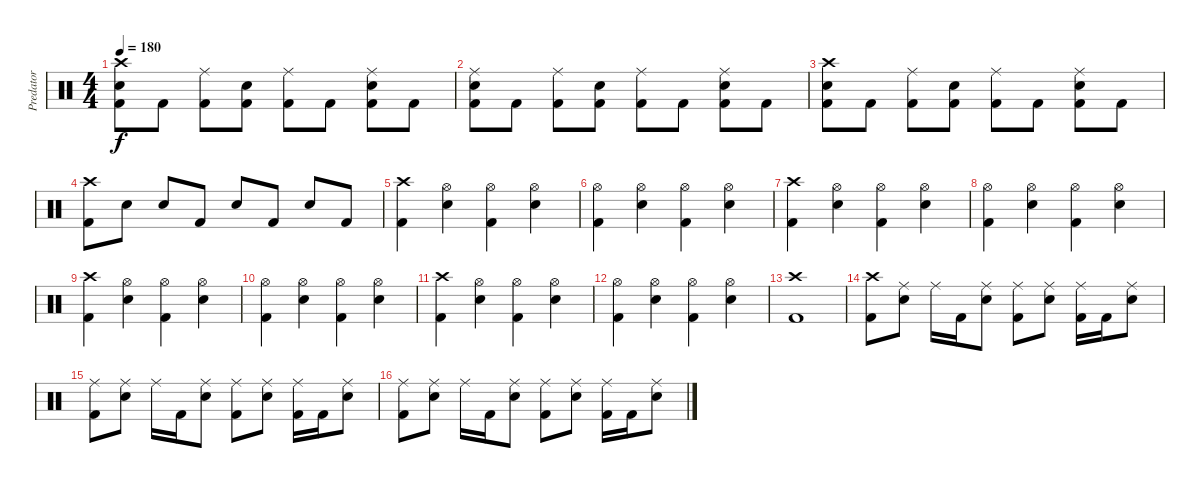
\track ("Predator" "Predator") {instrument percussion}
\staff {score}
\articulation defaults
\ts (4 4)
\tempo 180
\clef neutral
\ks c
("Kick (hit) 2" "Electric Snare (hit)" "Crash high (hit)").8{dy f} "Kick (hit) 2".8 ("Kick (hit) 2" "Ride (middle)").8 ("Kick (hit) 2" "Electric Snare (hit)").8 ("Kick (hit) 2" "Ride (middle)").8 "Kick (hit) 2".8 ("Kick (hit) 2" "Electric Snare (hit)" "Ride (middle)").8 "Kick (hit) 2".8 |
("Kick (hit) 2" "Electric Snare (hit)" "Ride (middle)").8 "Kick (hit) 2".8 ("Kick (hit) 2" "Ride (middle)").8 ("Kick (hit) 2" "Electric Snare (hit)").8 ("Kick (hit) 2" "Ride (middle)").8 "Kick (hit) 2".8 ("Kick (hit) 2" "Electric Snare (hit)" "Ride (middle)").8 "Kick (hit) 2".8 |
("Kick (hit) 2" "Electric Snare (hit)" "Crash high (hit)").8 "Kick (hit) 2".8 ("Kick (hit) 2" "Ride (middle)").8 ("Kick (hit) 2" "Electric Snare (hit)").8 ("Kick (hit) 2" "Ride (middle)").8 "Kick (hit) 2".8 ("Kick (hit) 2" "Electric Snare (hit)" "Ride (middle)").8 "Kick (hit) 2".8 |
("Kick (hit) 2" "Crash high (hit)").8 "Electric Snare (hit)".8 "Electric Snare (hit)".8 "Kick (hit) 2".8 "Electric Snare (hit)".8 "Kick (hit) 2".8 "Electric Snare (hit)".8 "Kick (hit) 2".8 |
("Kick (hit) 2" "Crash high (hit)").4 ("Electric Snare (hit)" "Hi-Hat (open)").4 ("Kick (hit) 2" "Hi-Hat (open)").4 ("Electric Snare (hit)" "Hi-Hat (open)").4 |
("Kick (hit) 2" "Hi-Hat (open)").4 ("Electric Snare (hit)" "Hi-Hat (open)").4 ("Kick (hit) 2" "Hi-Hat (open)").4 ("Electric Snare (hit)" "Hi-Hat (open)").4 |
("Kick (hit) 2" "Crash high (hit)").4 ("Electric Snare (hit)" "Hi-Hat (open)").4 ("Kick (hit) 2" "Hi-Hat (open)").4 ("Electric Snare (hit)" "Hi-Hat (open)").4 |
("Kick (hit) 2" "Hi-Hat (open)").4 ("Electric Snare (hit)" "Hi-Hat (open)").4 ("Kick (hit) 2" "Hi-Hat (open)").4 ("Electric Snare (hit)" "Hi-Hat (open)").4 |
("Kick (hit) 2" "Crash high (hit)").4 ("Electric Snare (hit)" "Hi-Hat (open)").4 ("Kick (hit) 2" "Hi-Hat (open)").4 ("Electric Snare (hit)" "Hi-Hat (open)").4 |
("Kick (hit) 2" "Hi-Hat (open)").4 ("Electric Snare (hit)" "Hi-Hat (open)").4 ("Kick (hit) 2" "Hi-Hat (open)").4 ("Electric Snare (hit)" "Hi-Hat (open)").4 |
("Kick (hit) 2" "Crash high (hit)").4 ("Electric Snare (hit)" "Hi-Hat (open)").4 ("Kick (hit) 2" "Hi-Hat (open)").4 ("Electric Snare (hit)" "Hi-Hat (open)").4 |
("Kick (hit) 2" "Hi-Hat (open)").4 ("Electric Snare (hit)" "Hi-Hat (open)").4 ("Kick (hit) 2" "Hi-Hat (open)").4 ("Electric Snare (hit)" "Hi-Hat (open)").4 |
("Kick (hit) 2" "Crash high (hit)").1 |
("Kick (hit) 2" "Crash high (hit)").8 ("Electric Snare (hit)" "Ride (middle)").8 "Ride (middle)".16 "Kick (hit) 2".16 ("Electric Snare (hit)" "Ride (middle)").8 ("Kick (hit) 2" "Ride (middle)").8 ("Electric Snare (hit)" "Ride (middle)").8 ("Kick (hit) 2" "Ride (middle)").16 "Kick (hit) 2".16 ("Electric Snare (hit)" "Ride (middle)").8 |
("Kick (hit) 2" "Ride (middle)").8 ("Electric Snare (hit)" "Ride (middle)").8 "Ride (middle)".16 "Kick (hit) 2".16 ("Electric Snare (hit)" "Ride (middle)").8 ("Kick (hit) 2" "Ride (middle)").8 ("Electric Snare (hit)" "Ride (middle)").8 ("Kick (hit) 2" "Ride (middle)").16 "Kick (hit) 2".16 ("Electric Snare (hit)" "Ride (middle)").8 |
("Kick (hit) 2" "Ride (middle)").8 ("Electric Snare (hit)" "Ride (middle)").8 "Ride (middle)".16 "Kick (hit) 2".16 ("Electric Snare (hit)" "Ride (middle)").8 ("Kick (hit) 2" "Ride (middle)").8 ("Electric Snare (hit)" "Ride (middle)").8 ("Kick (hit) 2" "Ride (middle)").16 "Kick (hit) 2".16 ("Electric Snare (hit)" "Ride (middle)").8
